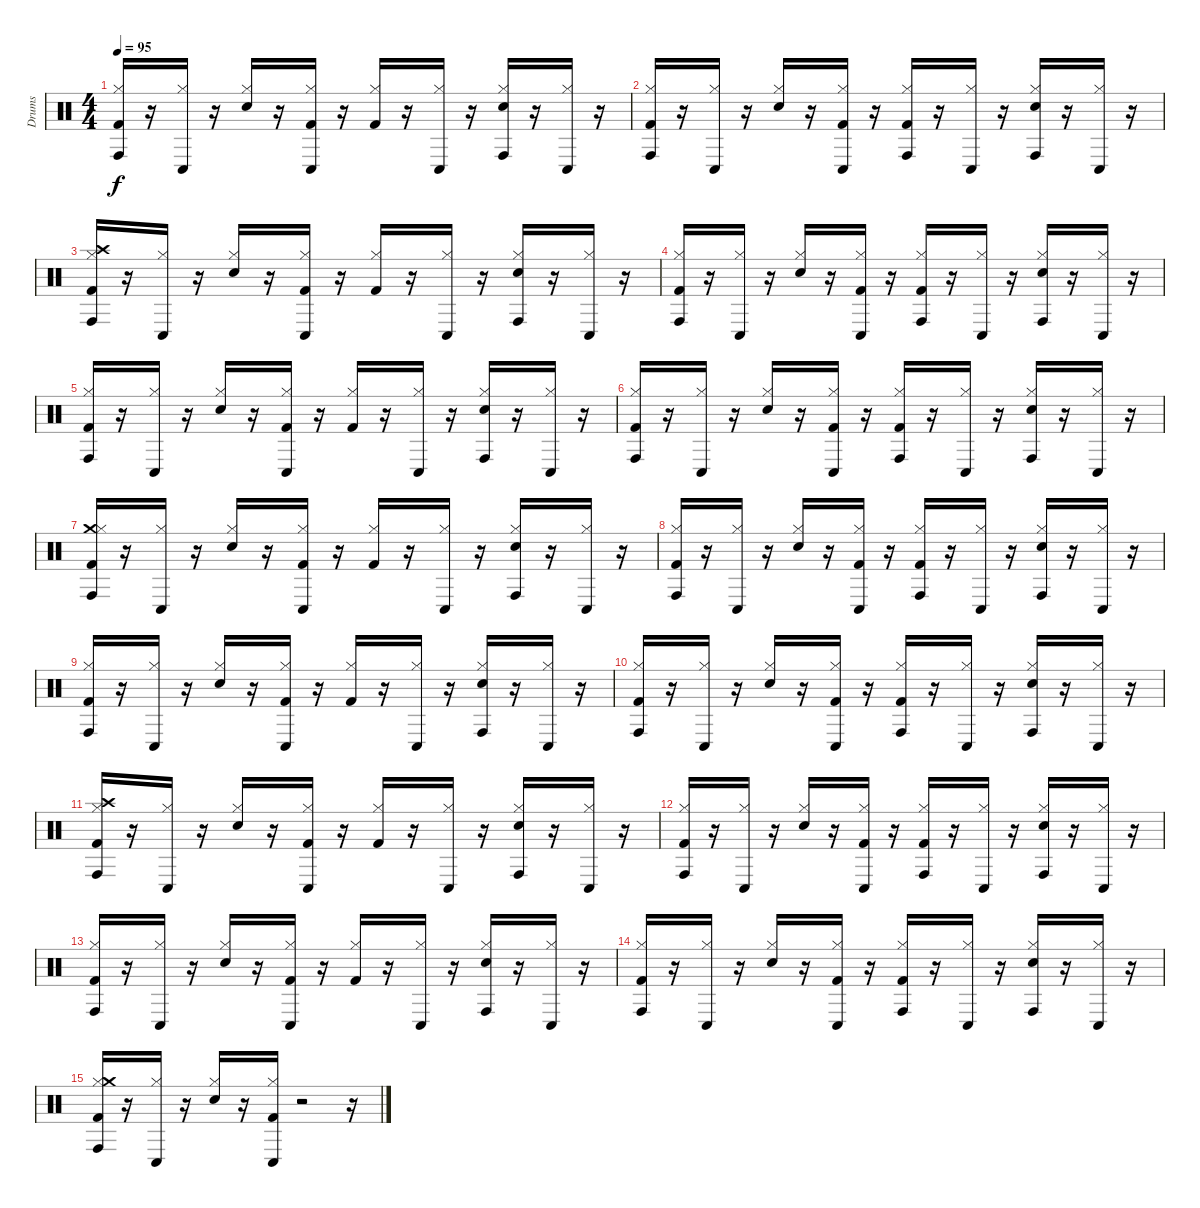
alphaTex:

\track ("Drums" "Drums") {instrument percussion}
\staff {score}
\articulation defaults
\ts (4 4)
\tempo 95
\clef neutral
\ks c
("Kick (hit) 2" "Conga high (hit)" "Hi-Hat (closed)").16{dy f} r.16 ("Conga low (hit)" "Hi-Hat (closed)").16 r.16 ("Hi-Hat (closed)" "Snare (hit) 2").16 r.16 ("Kick (hit) 2" "Hi-Hat (closed)" "Conga low (hit)").16 r.16 ("Hi-Hat (closed)" "Kick (hit) 2").16 r.16 ("Hi-Hat (closed)" "Conga low (hit)").16 r.16 ("Snare (hit) 2" "Conga high (hit)" "Hi-Hat (closed)").16 r.16 ("Hi-Hat (closed)" "Conga low (hit)").16 r.16 |
("Hi-Hat (closed)" "Conga high (hit)" "Kick (hit) 2").16 r.16 ("Hi-Hat (closed)" "Conga low (hit)").16 r.16 ("Snare (hit) 2" "Hi-Hat (closed)").16 r.16 ("Kick (hit) 2" "Hi-Hat (closed)" "Conga low (hit)").16 r.16 ("Kick (hit) 2" "Hi-Hat (closed)" "Conga high (hit)").16 r.16 ("Conga low (hit)" "Hi-Hat (closed)").16 r.16 ("Conga high (hit)" "Snare (hit) 2" "Hi-Hat (closed)").16 r.16 ("Conga low (hit)" "Hi-Hat (closed)").16 r.16 |
("Kick (hit) 2" "Conga high (hit)" "Hi-Hat (closed)" "Crash high (hit)").16 r.16 ("Hi-Hat (closed)" "Conga low (hit)").16 r.16 ("Hi-Hat (closed)" "Snare (hit) 2").16 r.16 ("Conga low (hit)" "Kick (hit) 2" "Hi-Hat (closed)").16 r.16 ("Hi-Hat (closed)" "Kick (hit) 2").16 r.16 ("Hi-Hat (closed)" "Conga low (hit)").16 r.16 ("Hi-Hat (closed)" "Conga high (hit)" "Snare (hit) 2").16 r.16 ("Conga low (hit)" "Hi-Hat (closed)").16 r.16 |
("Kick (hit) 2" "Hi-Hat (closed)" "Conga high (hit)").16 r.16 ("Conga low (hit)" "Hi-Hat (closed)").16 r.16 ("Hi-Hat (closed)" "Snare (hit) 2").16 r.16 ("Hi-Hat (closed)" "Kick (hit) 2" "Conga low (hit)").16 r.16 ("Conga high (hit)" "Kick (hit) 2" "Hi-Hat (closed)").16 r.16 ("Conga low (hit)" "Hi-Hat (closed)").16 r.16 ("Snare (hit) 2" "Conga high (hit)" "Hi-Hat (closed)").16 r.16 ("Hi-Hat (closed)" "Conga low (hit)").16 r.16 |
("Conga high (hit)" "Hi-Hat (closed)" "Kick (hit) 2").16 r.16 ("Conga low (hit)" "Hi-Hat (closed)").16 r.16 ("Hi-Hat (closed)" "Snare (hit) 2").16 r.16 ("Hi-Hat (closed)" "Kick (hit) 2" "Conga low (hit)").16 r.16 ("Hi-Hat (closed)" "Kick (hit) 2").16 r.16 ("Conga low (hit)" "Hi-Hat (closed)").16 r.16 ("Snare (hit) 2" "Hi-Hat (closed)" "Conga high (hit)").16 r.16 ("Hi-Hat (closed)" "Conga low (hit)").16 r.16 |
("Conga high (hit)" "Hi-Hat (closed)" "Kick (hit) 2").16 r.16 ("Conga low (hit)" "Hi-Hat (closed)").16 r.16 ("Snare (hit) 2" "Hi-Hat (closed)").16 r.16 ("Hi-Hat (closed)" "Conga low (hit)" "Kick (hit) 2").16 r.16 ("Kick (hit) 2" "Conga high (hit)" "Hi-Hat (closed)").16 r.16 ("Conga low (hit)" "Hi-Hat (closed)").16 r.16 ("Hi-Hat (closed)" "Conga high (hit)" "Snare (hit) 2").16 r.16 ("Conga low (hit)" "Hi-Hat (closed)").16 r.16 |
("Crash medium (hit)" "Kick (hit) 2" "Hi-Hat (closed)" "Conga high (hit)").16 r.16 ("Conga low (hit)" "Hi-Hat (closed)").16 r.16 ("Snare (hit) 2" "Hi-Hat (closed)").16 r.16 ("Hi-Hat (closed)" "Kick (hit) 2" "Conga low (hit)").16 r.16 ("Kick (hit) 2" "Hi-Hat (closed)").16 r.16 ("Conga low (hit)" "Hi-Hat (closed)").16 r.16 ("Conga high (hit)" "Snare (hit) 2" "Hi-Hat (closed)").16 r.16 ("Hi-Hat (closed)" "Conga low (hit)").16 r.16 |
("Hi-Hat (closed)" "Kick (hit) 2" "Conga high (hit)").16 r.16 ("Hi-Hat (closed)" "Conga low (hit)").16 r.16 ("Hi-Hat (closed)" "Snare (hit) 2").16 r.16 ("Hi-Hat (closed)" "Kick (hit) 2" "Conga low (hit)").16 r.16 ("Kick (hit) 2" "Hi-Hat (closed)" "Conga high (hit)").16 r.16 ("Conga low (hit)" "Hi-Hat (closed)").16 r.16 ("Hi-Hat (closed)" "Conga high (hit)" "Snare (hit) 2").16 r.16 ("Conga low (hit)" "Hi-Hat (closed)").16 r.16 |
("Conga high (hit)" "Hi-Hat (closed)" "Kick (hit) 2").16 r.16 ("Hi-Hat (closed)" "Conga low (hit)").16 r.16 ("Snare (hit) 2" "Hi-Hat (closed)").16 r.16 ("Conga low (hit)" "Kick (hit) 2" "Hi-Hat (closed)").16 r.16 ("Hi-Hat (closed)" "Kick (hit) 2").16 r.16 ("Hi-Hat (closed)" "Conga low (hit)").16 r.16 ("Conga high (hit)" "Hi-Hat (closed)" "Snare (hit) 2").16 r.16 ("Hi-Hat (closed)" "Conga low (hit)").16 r.16 |
("Kick (hit) 2" "Conga high (hit)" "Hi-Hat (closed)").16 r.16 ("Hi-Hat (closed)" "Conga low (hit)").16 r.16 ("Hi-Hat (closed)" "Snare (hit) 2").16 r.16 ("Kick (hit) 2" "Conga low (hit)" "Hi-Hat (closed)").16 r.16 ("Conga high (hit)" "Hi-Hat (closed)" "Kick (hit) 2").16 r.16 ("Conga low (hit)" "Hi-Hat (closed)").16 r.16 ("Snare (hit) 2" "Conga high (hit)" "Hi-Hat (closed)").16 r.16 ("Hi-Hat (closed)" "Conga low (hit)").16 r.16 |
("Crash high (hit)" "Hi-Hat (closed)" "Kick (hit) 2" "Conga high (hit)").16 r.16 ("Conga low (hit)" "Hi-Hat (closed)").16 r.16 ("Snare (hit) 2" "Hi-Hat (closed)").16 r.16 ("Hi-Hat (closed)" "Kick (hit) 2" "Conga low (hit)").16 r.16 ("Kick (hit) 2" "Hi-Hat (closed)").16 r.16 ("Hi-Hat (closed)" "Conga low (hit)").16 r.16 ("Hi-Hat (closed)" "Snare (hit) 2" "Conga high (hit)").16 r.16 ("Hi-Hat (closed)" "Conga low (hit)").16 r.16 |
("Hi-Hat (closed)" "Conga high (hit)" "Kick (hit) 2").16 r.16 ("Conga low (hit)" "Hi-Hat (closed)").16 r.16 ("Snare (hit) 2" "Hi-Hat (closed)").16 r.16 ("Kick (hit) 2" "Conga low (hit)" "Hi-Hat (closed)").16 r.16 ("Hi-Hat (closed)" "Kick (hit) 2" "Conga high (hit)").16 r.16 ("Conga low (hit)" "Hi-Hat (closed)").16 r.16 ("Hi-Hat (closed)" "Snare (hit) 2" "Conga high (hit)").16 r.16 ("Hi-Hat (closed)" "Conga low (hit)").16 r.16 |
("Conga high (hit)" "Kick (hit) 2" "Hi-Hat (closed)").16 r.16 ("Hi-Hat (closed)" "Conga low (hit)").16 r.16 ("Snare (hit) 2" "Hi-Hat (closed)").16 r.16 ("Kick (hit) 2" "Conga low (hit)" "Hi-Hat (closed)").16 r.16 ("Hi-Hat (closed)" "Kick (hit) 2").16 r.16 ("Conga low (hit)" "Hi-Hat (closed)").16 r.16 ("Snare (hit) 2" "Hi-Hat (closed)" "Conga high (hit)").16 r.16 ("Conga low (hit)" "Hi-Hat (closed)").16 r.16 |
("Kick (hit) 2" "Conga high (hit)" "Hi-Hat (closed)").16 r.16 ("Hi-Hat (closed)" "Conga low (hit)").16 r.16 ("Hi-Hat (closed)" "Snare (hit) 2").16 r.16 ("Conga low (hit)" "Kick (hit) 2" "Hi-Hat (closed)").16 r.16 ("Conga high (hit)" "Hi-Hat (closed)" "Kick (hit) 2").16 r.16 ("Hi-Hat (closed)" "Conga low (hit)").16 r.16 ("Conga high (hit)" "Snare (hit) 2" "Hi-Hat (closed)").16 r.16 ("Conga low (hit)" "Hi-Hat (closed)").16 r.16 |
("Kick (hit) 2" "Conga high (hit)" "Hi-Hat (closed)" "Crash medium (hit)").16 r.16 ("Hi-Hat (closed)" "Conga low (hit)").16 r.16 ("Hi-Hat (closed)" "Snare (hit) 2").16 r.16 ("Conga low (hit)" "Hi-Hat (closed)" "Kick (hit) 2").16 r.2 r.16
